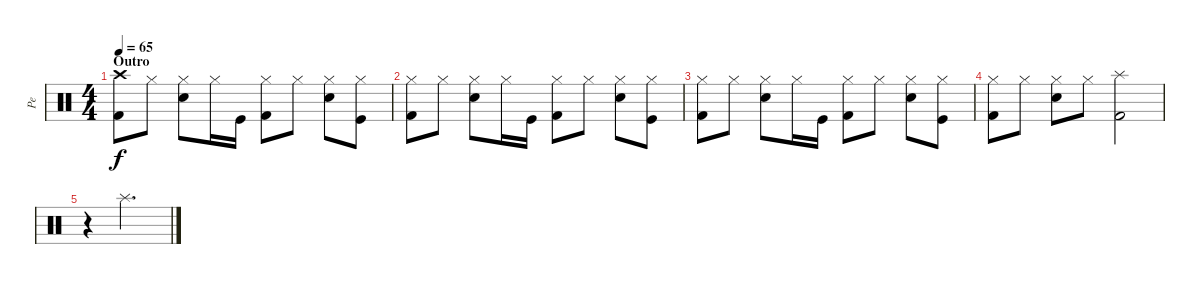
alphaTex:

\track ("Pe" "Pe") {instrument percussion}
\staff {score}
\articulation defaults
\ts (4 4)
\section ("" "Outro")
\tempo 65
\clef neutral
\ks c
("Kick (hit) 2" "Crash high (hit)").8{dy f} "Hi-Hat (closed)".8 ("Electric Snare (hit)" "Hi-Hat (closed)").8 "Hi-Hat (closed)".16 "Kick (hit)".16 ("Kick (hit) 2" "Hi-Hat (closed)").8 "Hi-Hat (closed)".8 ("Electric Snare (hit)" "Hi-Hat (closed)").8 ("Kick (hit)" "Hi-Hat (closed)").8 |
("Kick (hit) 2" "Hi-Hat (closed)").8 "Hi-Hat (closed)".8 ("Electric Snare (hit)" "Hi-Hat (closed)").8 "Hi-Hat (closed)".16 "Kick (hit)".16 ("Kick (hit) 2" "Hi-Hat (closed)").8 "Hi-Hat (closed)".8 ("Electric Snare (hit)" "Hi-Hat (closed)").8 ("Kick (hit)" "Hi-Hat (closed)").8 |
("Kick (hit) 2" "Hi-Hat (closed)").8 "Hi-Hat (closed)".8 ("Electric Snare (hit)" "Hi-Hat (closed)").8 "Hi-Hat (closed)".16 "Kick (hit)".16 ("Kick (hit) 2" "Hi-Hat (closed)").8 "Hi-Hat (closed)".8 ("Electric Snare (hit)" "Hi-Hat (closed)").8 ("Kick (hit)" "Hi-Hat (closed)").8 |
("Kick (hit) 2" "Hi-Hat (closed)").8 "Hi-Hat (closed)".8 ("Electric Snare (hit)" "Hi-Hat (closed)").8 "Hi-Hat (closed)".8 ("Kick (hit) 2" "Splash (hit)").2 |
r.4 "Splash (hit)".2{d}
